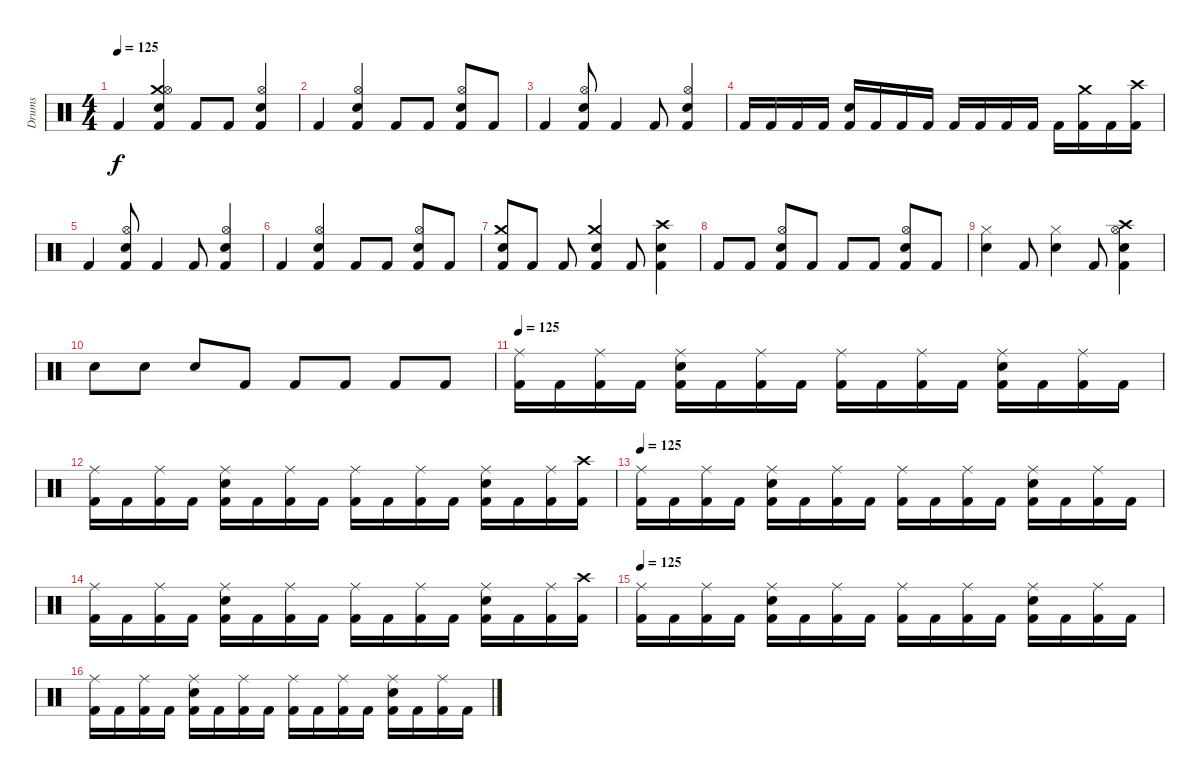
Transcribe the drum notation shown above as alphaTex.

\track ("Drums" "Drums") {instrument percussion}
\staff {score}
\articulation defaults
\ts (4 4)
\tempo 125
\clef neutral
\ks c "Kick (hit) 2".4{dy f}
("Crash medium (hit)" "Hi-Hat (open)" "Electric Snare (hit)" "Kick (hit) 2").4 "Kick (hit) 2".8 "Kick (hit) 2".8 ("Hi-Hat (open)" "Electric Snare (hit)" "Kick (hit) 2").4 |
"Kick (hit) 2".4 ("Hi-Hat (open)" "Electric Snare (hit)" "Kick (hit) 2").4 "Kick (hit) 2".8 "Kick (hit) 2".8 ("Hi-Hat (open)" "Electric Snare (hit)" "Kick (hit) 2").8 "Kick (hit) 2".8 |
"Kick (hit) 2".4 ("Hi-Hat (open)" "Electric Snare (hit)" "Kick (hit) 2").8 "Kick (hit) 2".4 "Kick (hit) 2".8 ("Hi-Hat (open)" "Electric Snare (hit)" "Kick (hit) 2").4 |
"Kick (hit) 2".16 "Kick (hit) 2".16 "Kick (hit) 2".16 "Kick (hit) 2".16 ("Electric Snare (hit)" "Kick (hit) 2").16 "Kick (hit) 2".16 "Kick (hit) 2".16 "Kick (hit) 2".16 "Kick (hit) 2".16 "Kick (hit) 2".16 "Kick (hit) 2".16 "Kick (hit) 2".16 "Kick (hit) 2".16 ("Crash medium (hit)" "Kick (hit) 2").16 "Kick (hit) 2".16 ("Crash high (hit)" "Kick (hit) 2").16 |
"Kick (hit) 2".4 ("Hi-Hat (open)" "Electric Snare (hit)" "Kick (hit) 2").8 "Kick (hit) 2".4 "Kick (hit) 2".8 ("Hi-Hat (open)" "Electric Snare (hit)" "Kick (hit) 2").4 |
"Kick (hit) 2".4 ("Hi-Hat (open)" "Electric Snare (hit)" "Kick (hit) 2").4 "Kick (hit) 2".8 "Kick (hit) 2".8 ("Hi-Hat (open)" "Electric Snare (hit)" "Kick (hit) 2").8 "Kick (hit) 2".8 |
("Crash medium (hit)" "Electric Snare (hit)" "Kick (hit) 2").8 "Kick (hit) 2".8 "Kick (hit) 2".8 ("Crash medium (hit)" "Electric Snare (hit)" "Kick (hit) 2").4 "Kick (hit) 2".8 ("Crash high (hit)" "Electric Snare (hit)" "Kick (hit) 2").4 |
"Kick (hit) 2".8 "Kick (hit) 2".8 ("Hi-Hat (open)" "Electric Snare (hit)" "Kick (hit) 2").8 "Kick (hit) 2".8 "Kick (hit) 2".8 "Kick (hit) 2".8 ("Hi-Hat (open)" "Electric Snare (hit)" "Kick (hit) 2").8 "Kick (hit) 2".8 |
("Hi-Hat (closed)" "Electric Snare (hit)").4 "Kick (hit) 2".8 ("Hi-Hat (closed)" "Electric Snare (hit)").4 "Kick (hit) 2".8 ("Crash high (hit)" "Hi-Hat (open)" "Electric Snare (hit)" "Kick (hit) 2").4 |
"Electric Snare (hit)".8 "Electric Snare (hit)".8 "Electric Snare (hit)".8 "Kick (hit) 2".8 "Kick (hit) 2".8 "Kick (hit) 2".8 "Kick (hit) 2".8 "Kick (hit) 2".8 |
\tempo 125
("Ride (middle)" "Kick (hit) 2").16 "Kick (hit) 2".16 ("Ride (middle)" "Kick (hit) 2").16 "Kick (hit) 2".16 ("Ride (middle)" "Electric Snare (hit)" "Kick (hit) 2").16 "Kick (hit) 2".16 ("Ride (middle)" "Kick (hit) 2").16 "Kick (hit) 2".16 ("Ride (middle)" "Kick (hit) 2").16 "Kick (hit) 2".16 ("Ride (middle)" "Kick (hit) 2").16 "Kick (hit) 2".16 ("Ride (middle)" "Electric Snare (hit)" "Kick (hit) 2").16 "Kick (hit) 2".16 ("Ride (middle)" "Kick (hit) 2").16 "Kick (hit) 2".16 |
("Ride (middle)" "Kick (hit) 2").16 "Kick (hit) 2".16 ("Ride (middle)" "Kick (hit) 2").16 "Kick (hit) 2".16 ("Ride (middle)" "Electric Snare (hit)" "Kick (hit) 2").16 "Kick (hit) 2".16 ("Ride (middle)" "Kick (hit) 2").16 "Kick (hit) 2".16 ("Ride (middle)" "Kick (hit) 2").16 "Kick (hit) 2".16 ("Ride (middle)" "Kick (hit) 2").16 "Kick (hit) 2".16 ("Ride (middle)" "Electric Snare (hit)" "Kick (hit) 2").16 "Kick (hit) 2".16 ("Ride (middle)" "Kick (hit) 2").16 ("Crash high (hit)" "Kick (hit) 2").16 |
\tempo 125
("Ride (middle)" "Kick (hit) 2").16 "Kick (hit) 2".16 ("Ride (middle)" "Kick (hit) 2").16 "Kick (hit) 2".16 ("Ride (middle)" "Electric Snare (hit)" "Kick (hit) 2").16 "Kick (hit) 2".16 ("Ride (middle)" "Kick (hit) 2").16 "Kick (hit) 2".16 ("Ride (middle)" "Kick (hit) 2").16 "Kick (hit) 2".16 ("Ride (middle)" "Kick (hit) 2").16 "Kick (hit) 2".16 ("Ride (middle)" "Electric Snare (hit)" "Kick (hit) 2").16 "Kick (hit) 2".16 ("Ride (middle)" "Kick (hit) 2").16 "Kick (hit) 2".16 |
("Ride (middle)" "Kick (hit) 2").16 "Kick (hit) 2".16 ("Ride (middle)" "Kick (hit) 2").16 "Kick (hit) 2".16 ("Ride (middle)" "Electric Snare (hit)" "Kick (hit) 2").16 "Kick (hit) 2".16 ("Ride (middle)" "Kick (hit) 2").16 "Kick (hit) 2".16 ("Ride (middle)" "Kick (hit) 2").16 "Kick (hit) 2".16 ("Ride (middle)" "Kick (hit) 2").16 "Kick (hit) 2".16 ("Ride (middle)" "Electric Snare (hit)" "Kick (hit) 2").16 "Kick (hit) 2".16 ("Ride (middle)" "Kick (hit) 2").16 ("Crash high (hit)" "Kick (hit) 2").16 |
\tempo 125
("Ride (middle)" "Kick (hit) 2").16 "Kick (hit) 2".16 ("Ride (middle)" "Kick (hit) 2").16 "Kick (hit) 2".16 ("Ride (middle)" "Electric Snare (hit)" "Kick (hit) 2").16 "Kick (hit) 2".16 ("Ride (middle)" "Kick (hit) 2").16 "Kick (hit) 2".16 ("Ride (middle)" "Kick (hit) 2").16 "Kick (hit) 2".16 ("Ride (middle)" "Kick (hit) 2").16 "Kick (hit) 2".16 ("Ride (middle)" "Electric Snare (hit)" "Kick (hit) 2").16 "Kick (hit) 2".16 ("Ride (middle)" "Kick (hit) 2").16 "Kick (hit) 2".16 |
("Ride (middle)" "Kick (hit) 2").16 "Kick (hit) 2".16 ("Ride (middle)" "Kick (hit) 2").16 "Kick (hit) 2".16 ("Ride (middle)" "Electric Snare (hit)" "Kick (hit) 2").16 "Kick (hit) 2".16 ("Ride (middle)" "Kick (hit) 2").16 "Kick (hit) 2".16 ("Ride (middle)" "Kick (hit) 2").16 "Kick (hit) 2".16 ("Ride (middle)" "Kick (hit) 2").16 "Kick (hit) 2".16 ("Ride (middle)" "Electric Snare (hit)" "Kick (hit) 2").16 "Kick (hit) 2".16 ("Ride (middle)" "Kick (hit) 2").16 "Kick (hit) 2".16
